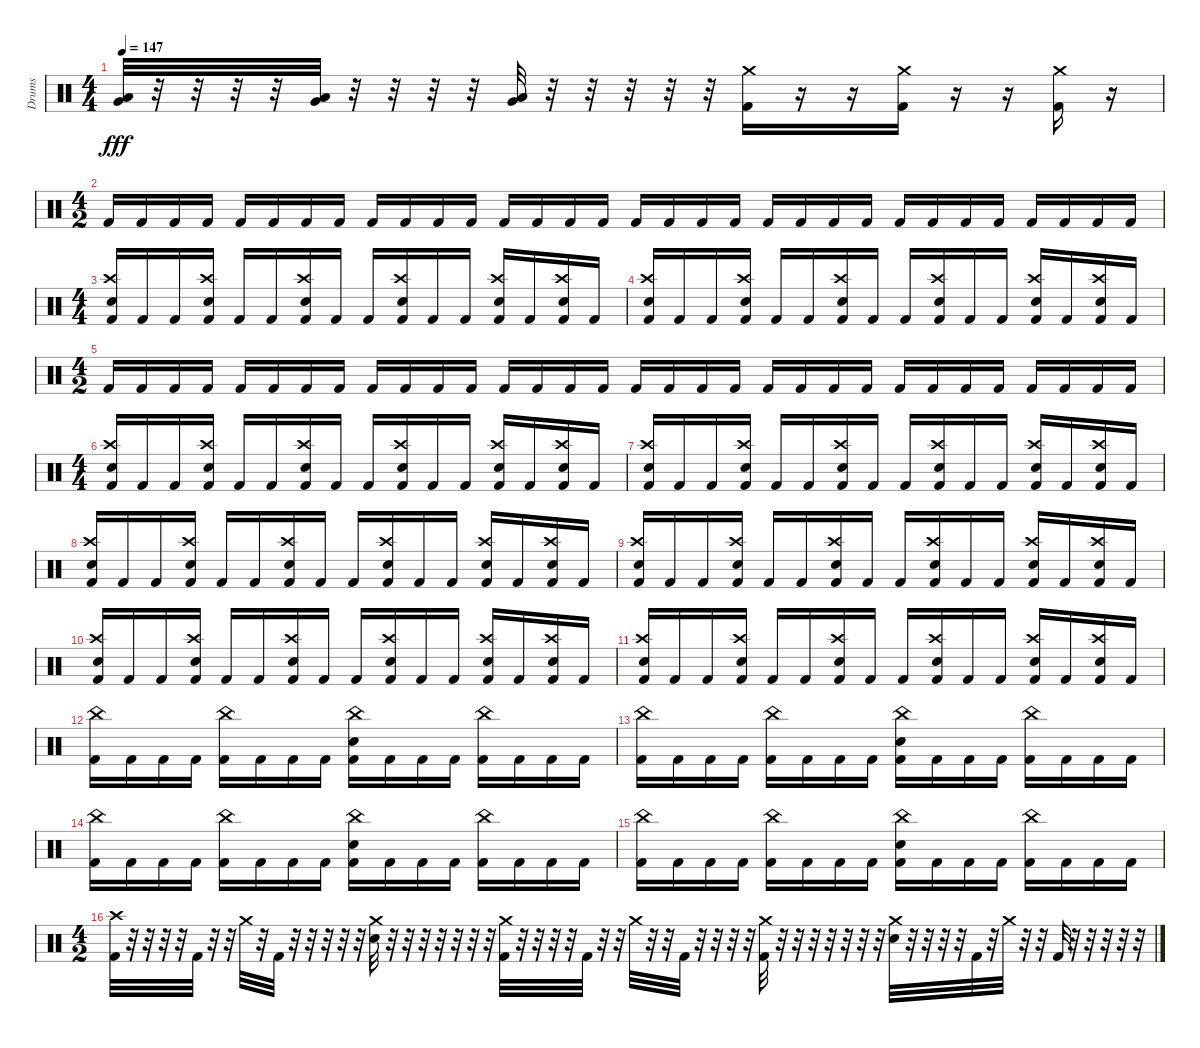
\track ("Drums" "Drums") {instrument percussion}
\staff {score}
\articulation defaults
\ts (4 4)
\tempo 147
\clef neutral
\ks c
("Low Floor Tom (hit)" "Very Low Tom (hit)").32{dy fff} r.32 r.32 r.32 r.32 ("Low Floor Tom (hit)" "Very Low Tom (hit)").32 r.32 r.32 r.32 r.32 ("Low Floor Tom (hit)" "Very Low Tom (hit)").32 r.32 r.32 r.32 r.32 r.32 ("Crash medium (hit)" "Kick (hit) 2").16 r.16 r.16 ("Crash medium (hit)" "Kick (hit) 2").16 r.16 r.16 ("Crash medium (hit)" "Kick (hit) 2").16 r.16 |
\ts (4 2)
"Kick (hit) 2".16 "Kick (hit) 2".16 "Kick (hit) 2".16 "Kick (hit) 2".16 "Kick (hit) 2".16 "Kick (hit) 2".16 "Kick (hit) 2".16 "Kick (hit) 2".16 "Kick (hit) 2".16 "Kick (hit) 2".16 "Kick (hit) 2".16 "Kick (hit) 2".16 "Kick (hit) 2".16 "Kick (hit) 2".16 "Kick (hit) 2".16 "Kick (hit) 2".16 "Kick (hit) 2".16 "Kick (hit) 2".16 "Kick (hit) 2".16 "Kick (hit) 2".16 "Kick (hit) 2".16 "Kick (hit) 2".16 "Kick (hit) 2".16 "Kick (hit) 2".16 "Kick (hit) 2".16 "Kick (hit) 2".16 "Kick (hit) 2".16 "Kick (hit) 2".16 "Kick (hit) 2".16 "Kick (hit) 2".16 "Kick (hit) 2".16 "Kick (hit) 2".16 |
\ts (4 4)
("Crash high (hit)" "Electric Snare (hit)" "Kick (hit) 2").16 "Kick (hit) 2".16 "Kick (hit) 2".16 ("Crash high (hit)" "Electric Snare (hit)" "Kick (hit) 2").16 "Kick (hit) 2".16 "Kick (hit) 2".16 ("Crash high (hit)" "Electric Snare (hit)" "Kick (hit) 2").16 "Kick (hit) 2".16 "Kick (hit) 2".16 ("Crash high (hit)" "Electric Snare (hit)" "Kick (hit) 2").16 "Kick (hit) 2".16 "Kick (hit) 2".16 ("Crash high (hit)" "Electric Snare (hit)" "Kick (hit) 2").16 "Kick (hit) 2".16 ("Crash high (hit)" "Electric Snare (hit)" "Kick (hit) 2").16 "Kick (hit) 2".16 |
("Crash high (hit)" "Electric Snare (hit)" "Kick (hit) 2").16 "Kick (hit) 2".16 "Kick (hit) 2".16 ("Crash high (hit)" "Electric Snare (hit)" "Kick (hit) 2").16 "Kick (hit) 2".16 "Kick (hit) 2".16 ("Crash high (hit)" "Electric Snare (hit)" "Kick (hit) 2").16 "Kick (hit) 2".16 "Kick (hit) 2".16 ("Crash high (hit)" "Electric Snare (hit)" "Kick (hit) 2").16 "Kick (hit) 2".16 "Kick (hit) 2".16 ("Crash high (hit)" "Electric Snare (hit)" "Kick (hit) 2").16 "Kick (hit) 2".16 ("Crash high (hit)" "Electric Snare (hit)" "Kick (hit) 2").16 "Kick (hit) 2".16 |
\ts (4 2)
"Kick (hit) 2".16 "Kick (hit) 2".16 "Kick (hit) 2".16 "Kick (hit) 2".16 "Kick (hit) 2".16 "Kick (hit) 2".16 "Kick (hit) 2".16 "Kick (hit) 2".16 "Kick (hit) 2".16 "Kick (hit) 2".16 "Kick (hit) 2".16 "Kick (hit) 2".16 "Kick (hit) 2".16 "Kick (hit) 2".16 "Kick (hit) 2".16 "Kick (hit) 2".16 "Kick (hit) 2".16 "Kick (hit) 2".16 "Kick (hit) 2".16 "Kick (hit) 2".16 "Kick (hit) 2".16 "Kick (hit) 2".16 "Kick (hit) 2".16 "Kick (hit) 2".16 "Kick (hit) 2".16 "Kick (hit) 2".16 "Kick (hit) 2".16 "Kick (hit) 2".16 "Kick (hit) 2".16 "Kick (hit) 2".16 "Kick (hit) 2".16 "Kick (hit) 2".16 |
\ts (4 4)
("Crash high (hit)" "Electric Snare (hit)" "Kick (hit) 2").16 "Kick (hit) 2".16 "Kick (hit) 2".16 ("Crash high (hit)" "Electric Snare (hit)" "Kick (hit) 2").16 "Kick (hit) 2".16 "Kick (hit) 2".16 ("Crash high (hit)" "Electric Snare (hit)" "Kick (hit) 2").16 "Kick (hit) 2".16 "Kick (hit) 2".16 ("Crash high (hit)" "Electric Snare (hit)" "Kick (hit) 2").16 "Kick (hit) 2".16 "Kick (hit) 2".16 ("Crash high (hit)" "Electric Snare (hit)" "Kick (hit) 2").16 "Kick (hit) 2".16 ("Crash high (hit)" "Electric Snare (hit)" "Kick (hit) 2").16 "Kick (hit) 2".16 |
("Crash high (hit)" "Electric Snare (hit)" "Kick (hit) 2").16 "Kick (hit) 2".16 "Kick (hit) 2".16 ("Crash high (hit)" "Electric Snare (hit)" "Kick (hit) 2").16 "Kick (hit) 2".16 "Kick (hit) 2".16 ("Crash high (hit)" "Electric Snare (hit)" "Kick (hit) 2").16 "Kick (hit) 2".16 "Kick (hit) 2".16 ("Crash high (hit)" "Electric Snare (hit)" "Kick (hit) 2").16 "Kick (hit) 2".16 "Kick (hit) 2".16 ("Crash high (hit)" "Electric Snare (hit)" "Kick (hit) 2").16 "Kick (hit) 2".16 ("Crash high (hit)" "Electric Snare (hit)" "Kick (hit) 2").16 "Kick (hit) 2".16 |
("Crash high (hit)" "Electric Snare (hit)" "Kick (hit) 2").16 "Kick (hit) 2".16 "Kick (hit) 2".16 ("Crash high (hit)" "Electric Snare (hit)" "Kick (hit) 2").16 "Kick (hit) 2".16 "Kick (hit) 2".16 ("Crash high (hit)" "Electric Snare (hit)" "Kick (hit) 2").16 "Kick (hit) 2".16 "Kick (hit) 2".16 ("Crash high (hit)" "Electric Snare (hit)" "Kick (hit) 2").16 "Kick (hit) 2".16 "Kick (hit) 2".16 ("Crash high (hit)" "Electric Snare (hit)" "Kick (hit) 2").16 "Kick (hit) 2".16 ("Crash high (hit)" "Electric Snare (hit)" "Kick (hit) 2").16 "Kick (hit) 2".16 |
("Crash high (hit)" "Electric Snare (hit)" "Kick (hit) 2").16 "Kick (hit) 2".16 "Kick (hit) 2".16 ("Crash high (hit)" "Electric Snare (hit)" "Kick (hit) 2").16 "Kick (hit) 2".16 "Kick (hit) 2".16 ("Crash high (hit)" "Electric Snare (hit)" "Kick (hit) 2").16 "Kick (hit) 2".16 "Kick (hit) 2".16 ("Crash high (hit)" "Electric Snare (hit)" "Kick (hit) 2").16 "Kick (hit) 2".16 "Kick (hit) 2".16 ("Crash high (hit)" "Electric Snare (hit)" "Kick (hit) 2").16 "Kick (hit) 2".16 ("Crash high (hit)" "Electric Snare (hit)" "Kick (hit) 2").16 "Kick (hit) 2".16 |
("Crash high (hit)" "Electric Snare (hit)" "Kick (hit) 2").16 "Kick (hit) 2".16 "Kick (hit) 2".16 ("Crash high (hit)" "Electric Snare (hit)" "Kick (hit) 2").16 "Kick (hit) 2".16 "Kick (hit) 2".16 ("Crash high (hit)" "Electric Snare (hit)" "Kick (hit) 2").16 "Kick (hit) 2".16 "Kick (hit) 2".16 ("Crash high (hit)" "Electric Snare (hit)" "Kick (hit) 2").16 "Kick (hit) 2".16 "Kick (hit) 2".16 ("Crash high (hit)" "Electric Snare (hit)" "Kick (hit) 2").16 "Kick (hit) 2".16 ("Crash high (hit)" "Electric Snare (hit)" "Kick (hit) 2").16 "Kick (hit) 2".16 |
("Crash high (hit)" "Electric Snare (hit)" "Kick (hit) 2").16 "Kick (hit) 2".16 "Kick (hit) 2".16 ("Crash high (hit)" "Electric Snare (hit)" "Kick (hit) 2").16 "Kick (hit) 2".16 "Kick (hit) 2".16 ("Crash high (hit)" "Electric Snare (hit)" "Kick (hit) 2").16 "Kick (hit) 2".16 "Kick (hit) 2".16 ("Crash high (hit)" "Electric Snare (hit)" "Kick (hit) 2").16 "Kick (hit) 2".16 "Kick (hit) 2".16 ("Crash high (hit)" "Electric Snare (hit)" "Kick (hit) 2").16 "Kick (hit) 2".16 ("Crash high (hit)" "Electric Snare (hit)" "Kick (hit) 2").16 "Kick (hit) 2".16 |
("China (hit)" "Kick (hit) 2").16 "Kick (hit) 2".16 "Kick (hit) 2".16 "Kick (hit) 2".16 ("China (hit)" "Kick (hit) 2").16 "Kick (hit) 2".16 "Kick (hit) 2".16 "Kick (hit) 2".16 ("China (hit)" "Electric Snare (hit)" "Kick (hit) 2").16 "Kick (hit) 2".16 "Kick (hit) 2".16 "Kick (hit) 2".16 ("China (hit)" "Kick (hit) 2").16 "Kick (hit) 2".16 "Kick (hit) 2".16 "Kick (hit) 2".16 |
("China (hit)" "Kick (hit) 2").16 "Kick (hit) 2".16 "Kick (hit) 2".16 "Kick (hit) 2".16 ("China (hit)" "Kick (hit) 2").16 "Kick (hit) 2".16 "Kick (hit) 2".16 "Kick (hit) 2".16 ("China (hit)" "Electric Snare (hit)" "Kick (hit) 2").16 "Kick (hit) 2".16 "Kick (hit) 2".16 "Kick (hit) 2".16 ("China (hit)" "Kick (hit) 2").16 "Kick (hit) 2".16 "Kick (hit) 2".16 "Kick (hit) 2".16 |
("China (hit)" "Kick (hit) 2").16 "Kick (hit) 2".16 "Kick (hit) 2".16 "Kick (hit) 2".16 ("China (hit)" "Kick (hit) 2").16 "Kick (hit) 2".16 "Kick (hit) 2".16 "Kick (hit) 2".16 ("China (hit)" "Electric Snare (hit)" "Kick (hit) 2").16 "Kick (hit) 2".16 "Kick (hit) 2".16 "Kick (hit) 2".16 ("China (hit)" "Kick (hit) 2").16 "Kick (hit) 2".16 "Kick (hit) 2".16 "Kick (hit) 2".16 |
("China (hit)" "Kick (hit) 2").16 "Kick (hit) 2".16 "Kick (hit) 2".16 "Kick (hit) 2".16 ("China (hit)" "Kick (hit) 2").16 "Kick (hit) 2".16 "Kick (hit) 2".16 "Kick (hit) 2".16 ("China (hit)" "Electric Snare (hit)" "Kick (hit) 2").16 "Kick (hit) 2".16 "Kick (hit) 2".16 "Kick (hit) 2".16 ("China (hit)" "Kick (hit) 2").16 "Kick (hit) 2".16 "Kick (hit) 2".16 "Kick (hit) 2".16 |
\ts (4 2)
("Crash high (hit)" "Kick (hit) 2").32 r.32 r.32 r.32 r.32 "Kick (hit) 2".32 r.32 r.32 "Crash medium (hit)".32 r.32 "Kick (hit) 2".32 r.32 r.32 r.32 r.32 r.32 ("Crash medium (hit)" "Electric Snare (hit)").32 r.32 r.32 r.32 r.32 r.32 r.32 r.32 ("Crash medium (hit)" "Kick (hit) 2").32 r.32 r.32 r.32 r.32 "Kick (hit) 2".32 r.32 r.32 "Crash medium (hit)".32 r.32 r.32 "Kick (hit) 2".32 r.32 r.32 r.32 r.32 ("Crash medium (hit)" "Kick (hit) 2").32 r.32 r.32 r.32 r.32 r.32 r.32 r.32 ("Crash medium (hit)" "Electric Snare (hit)").32 r.32 r.32 r.32 r.32 "Kick (hit) 2".32 r.32 "Crash medium (hit)".32 r.32 r.32 "Kick (hit) 2".32 r.32 r.32 r.32 r.32 r.32
